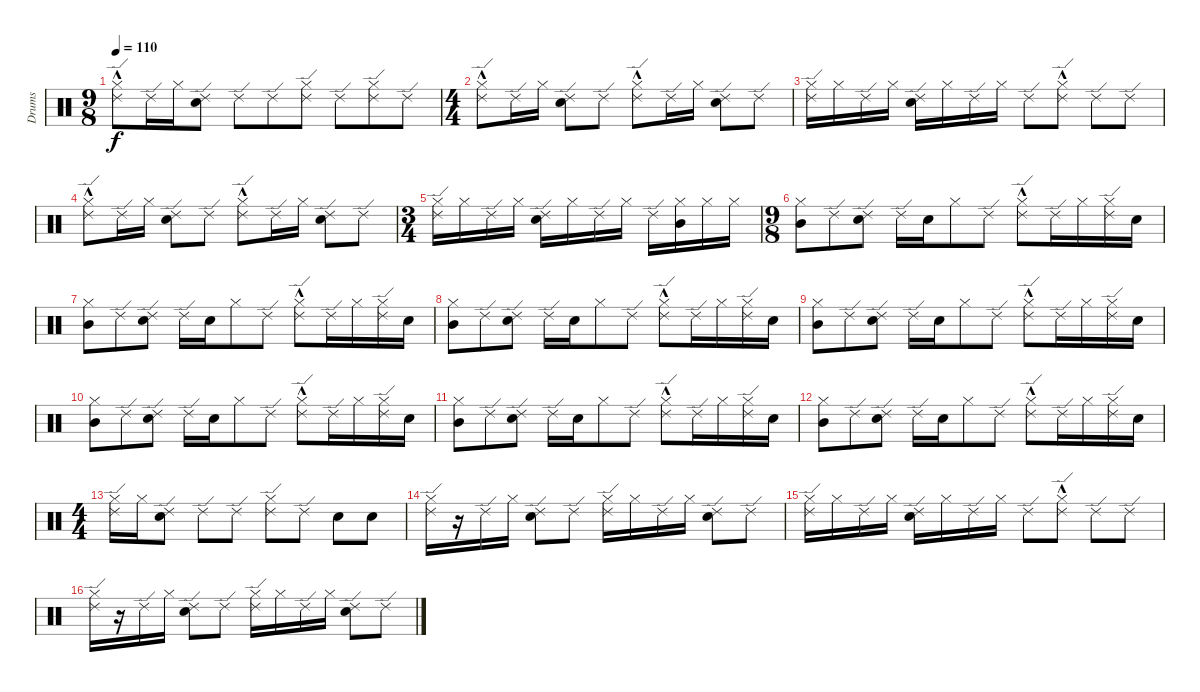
\track ("Drums" "Drums") {instrument percussion}
\staff {score}
\articulation defaults
\ts (9 8)
\tempo 110
\clef neutral
\ks c
("Hi-Hat (closed)"{hac} "Ride (edge) 2").8{dy f} "Ride (edge) 2".16 "Hi-Hat (closed)".16 ("Snare (hit) 2" "Ride (edge) 2").8 "Ride (edge) 2".8 "Ride (edge) 2".8 ("Hi-Hat (closed)" "Ride (edge) 2").8 "Ride (edge) 2".8 ("Hi-Hat (closed)" "Ride (edge) 2").8 "Ride (edge) 2".8 |
\ts (4 4)
("Hi-Hat (closed)"{hac} "Ride (edge) 2").8 "Ride (edge) 2".16 "Hi-Hat (closed)".16 ("Snare (hit) 2" "Ride (edge) 2").8 "Ride (edge) 2".8 ("Hi-Hat (closed)"{hac} "Ride (edge) 2").8 "Ride (edge) 2".16 "Hi-Hat (closed)".16 ("Snare (hit) 2" "Ride (edge) 2").8 "Ride (edge) 2".8 |
("Hi-Hat (closed)" "Ride (edge) 2").16 "Hi-Hat (closed)".16 "Ride (edge) 2".16 "Hi-Hat (closed)".16 ("Snare (hit) 2" "Ride (edge) 2").16 "Hi-Hat (closed)".16 "Ride (edge) 2".16 "Hi-Hat (closed)".16 "Ride (edge) 2".8 ("Hi-Hat (closed)"{hac} "Ride (edge) 2").8 "Ride (edge) 2".8 "Ride (edge) 2".8 |
("Hi-Hat (closed)"{hac} "Ride (edge) 2").8 "Ride (edge) 2".16 "Hi-Hat (closed)".16 ("Snare (hit) 2" "Ride (edge) 2").8 "Ride (edge) 2".8 ("Hi-Hat (closed)"{hac} "Ride (edge) 2").8 "Ride (edge) 2".16 "Hi-Hat (closed)".16 ("Snare (hit) 2" "Ride (edge) 2").8 "Ride (edge) 2".8 |
\ts (3 4)
("Hi-Hat (closed)" "Ride (edge) 2").16 "Hi-Hat (closed)".16 "Ride (edge) 2".16 "Hi-Hat (closed)".16 ("Snare (hit) 2" "Ride (edge) 2").16 "Hi-Hat (closed)".16 "Ride (edge) 2".16 "Hi-Hat (closed)".16 "Ride (edge) 2".16 ("Hi-Hat (closed)" "Mid Tom (hit)").16 "Hi-Hat (closed)".16 "Hi-Hat (closed)".16 |
\ts (9 8)
("Hi-Hat (closed)" "Mid Tom (hit)").8 "Ride (edge) 2".8 ("Snare (hit) 2" "Ride (edge) 2").8 "Ride (edge) 2".16 "Snare (hit) 2".16 "Hi-Hat (closed)".8 "Ride (edge) 2".8 ("Hi-Hat (closed)"{hac} "Ride (edge) 2").8 "Ride (edge) 2".16 "Hi-Hat (closed)".16 ("Hi-Hat (closed)" "Ride (edge) 2").16 "Snare (hit) 2".16 |
("Hi-Hat (closed)" "Mid Tom (hit)").8 "Ride (edge) 2".8 ("Snare (hit) 2" "Ride (edge) 2").8 "Ride (edge) 2".16 "Snare (hit) 2".16 "Hi-Hat (closed)".8 "Ride (edge) 2".8 ("Hi-Hat (closed)"{hac} "Ride (edge) 2").8 "Ride (edge) 2".16 "Hi-Hat (closed)".16 ("Hi-Hat (closed)" "Ride (edge) 2").16 "Snare (hit) 2".16 |
("Hi-Hat (closed)" "Mid Tom (hit)").8 "Ride (edge) 2".8 ("Snare (hit) 2" "Ride (edge) 2").8 "Ride (edge) 2".16 "Snare (hit) 2".16 "Hi-Hat (closed)".8 "Ride (edge) 2".8 ("Hi-Hat (closed)"{hac} "Ride (edge) 2").8 "Ride (edge) 2".16 "Hi-Hat (closed)".16 ("Hi-Hat (closed)" "Ride (edge) 2").16 "Snare (hit) 2".16 |
("Hi-Hat (closed)" "Mid Tom (hit)").8 "Ride (edge) 2".8 ("Snare (hit) 2" "Ride (edge) 2").8 "Ride (edge) 2".16 "Snare (hit) 2".16 "Hi-Hat (closed)".8 "Ride (edge) 2".8 ("Hi-Hat (closed)"{hac} "Ride (edge) 2").8 "Ride (edge) 2".16 "Hi-Hat (closed)".16 ("Hi-Hat (closed)" "Ride (edge) 2").16 "Snare (hit) 2".16 |
("Hi-Hat (closed)" "Mid Tom (hit)").8 "Ride (edge) 2".8 ("Snare (hit) 2" "Ride (edge) 2").8 "Ride (edge) 2".16 "Snare (hit) 2".16 "Hi-Hat (closed)".8 "Ride (edge) 2".8 ("Hi-Hat (closed)"{hac} "Ride (edge) 2").8 "Ride (edge) 2".16 "Hi-Hat (closed)".16 ("Hi-Hat (closed)" "Ride (edge) 2").16 "Snare (hit) 2".16 |
("Hi-Hat (closed)" "Mid Tom (hit)").8 "Ride (edge) 2".8 ("Snare (hit) 2" "Ride (edge) 2").8 "Ride (edge) 2".16 "Snare (hit) 2".16 "Hi-Hat (closed)".8 "Ride (edge) 2".8 ("Hi-Hat (closed)"{hac} "Ride (edge) 2").8 "Ride (edge) 2".16 "Hi-Hat (closed)".16 ("Hi-Hat (closed)" "Ride (edge) 2").16 "Snare (hit) 2".16 |
("Hi-Hat (closed)" "Mid Tom (hit)").8 "Ride (edge) 2".8 ("Snare (hit) 2" "Ride (edge) 2").8 "Ride (edge) 2".16 "Snare (hit) 2".16 "Hi-Hat (closed)".8 "Ride (edge) 2".8 ("Hi-Hat (closed)"{hac} "Ride (edge) 2").8 "Ride (edge) 2".16 "Hi-Hat (closed)".16 ("Hi-Hat (closed)" "Ride (edge) 2").16 "Snare (hit) 2".16 |
\ts (4 4)
("Hi-Hat (closed)" "Ride (edge) 2").16 "Hi-Hat (closed)".16 ("Snare (hit) 2" "Ride (edge) 2").8 "Ride (edge) 2".8 "Ride (edge) 2".8 ("Hi-Hat (closed)" "Ride (edge) 2").8 "Ride (edge) 2".8 "Snare (hit) 2".8 "Snare (hit) 2".8 |
("Hi-Hat (closed)" "Ride (edge) 2").16 r.16 "Ride (edge) 2".16 "Hi-Hat (closed)".16 ("Snare (hit) 2" "Ride (edge) 2").8 "Ride (edge) 2".8 ("Hi-Hat (closed)" "Ride (edge) 2").16 "Hi-Hat (closed)".16 "Ride (edge) 2".16 "Hi-Hat (closed)".16 ("Snare (hit) 2" "Ride (edge) 2").8 "Ride (edge) 2".8 |
("Hi-Hat (closed)" "Ride (edge) 2").16 "Hi-Hat (closed)".16 "Ride (edge) 2".16 "Hi-Hat (closed)".16 ("Snare (hit) 2" "Ride (edge) 2").16 "Hi-Hat (closed)".16 "Ride (edge) 2".16 "Hi-Hat (closed)".16 "Ride (edge) 2".8 ("Hi-Hat (closed)"{hac} "Ride (edge) 2").8 "Ride (edge) 2".8 "Ride (edge) 2".8 |
("Hi-Hat (closed)" "Ride (edge) 2").16 r.16 "Ride (edge) 2".16 "Hi-Hat (closed)".16 ("Snare (hit) 2" "Ride (edge) 2").8 "Ride (edge) 2".8 ("Hi-Hat (closed)" "Ride (edge) 2").16 "Hi-Hat (closed)".16 "Ride (edge) 2".16 "Hi-Hat (closed)".16 ("Snare (hit) 2" "Ride (edge) 2").8 "Ride (edge) 2".8
